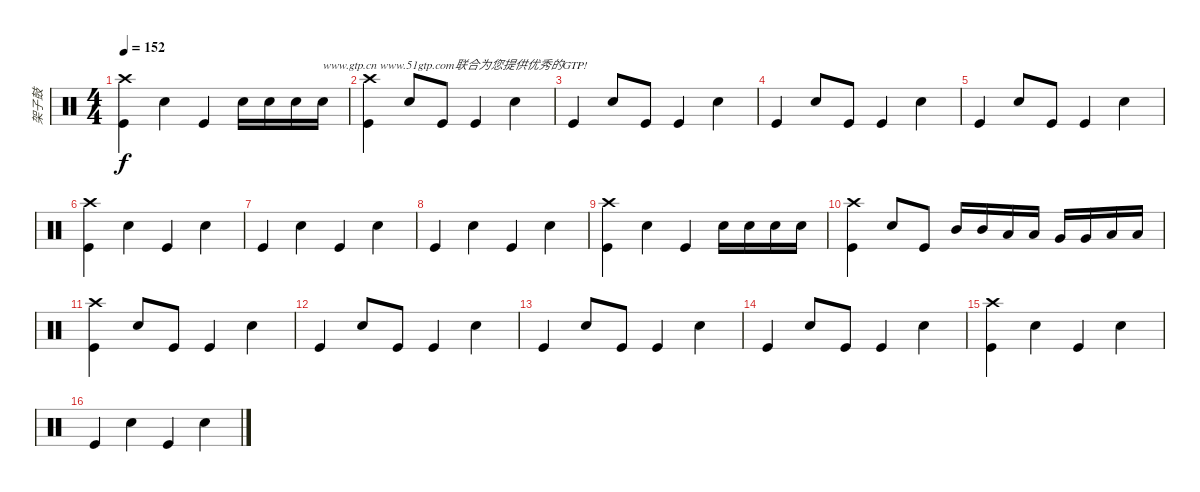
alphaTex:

\track ("架子鼓" "架子鼓") {instrument percussion}
\staff {score}
\articulation defaults
\ts (4 4)
\tempo 152
\clef neutral
\ks c
("Crash high (hit)" "Kick (hit)").4{dy f} "Electric Snare (hit)".4 "Kick (hit)".4 "Electric Snare (hit)".16 "Electric Snare (hit)".16 "Electric Snare (hit)".16 "Electric Snare (hit)".16{txt "www.gtp.cn www.51gtp.com联合为您提供优秀的GTP!"} |
("Crash high (hit)" "Kick (hit)").4 "Electric Snare (hit)".8 "Kick (hit)".8 "Kick (hit)".4 "Electric Snare (hit)".4 |
"Kick (hit)".4 "Electric Snare (hit)".8 "Kick (hit)".8 "Kick (hit)".4 "Electric Snare (hit)".4 |
"Kick (hit)".4 "Electric Snare (hit)".8 "Kick (hit)".8 "Kick (hit)".4 "Electric Snare (hit)".4 |
"Kick (hit)".4 "Electric Snare (hit)".8 "Kick (hit)".8 "Kick (hit)".4 "Electric Snare (hit)".4 |
("Crash high (hit)" "Kick (hit)").4 "Electric Snare (hit)".4 "Kick (hit)".4 "Electric Snare (hit)".4 |
"Kick (hit)".4 "Electric Snare (hit)".4 "Kick (hit)".4 "Electric Snare (hit)".4 |
"Kick (hit)".4 "Electric Snare (hit)".4 "Kick (hit)".4 "Electric Snare (hit)".4 |
("Crash high (hit)" "Kick (hit)").4 "Electric Snare (hit)".4 "Kick (hit)".4 "Electric Snare (hit)".16 "Electric Snare (hit)".16 "Electric Snare (hit)".16 "Electric Snare (hit)".16 |
("Crash high (hit)" "Kick (hit)").4 "Electric Snare (hit)".8 "Kick (hit)".8 "Mid Tom (hit)".16 "Mid Tom (hit)".16 "Low Tom (hit)".16 "Low Tom (hit)".16 "Very Low Tom (hit)".16 "Very Low Tom (hit)".16 "Low Floor Tom (hit)".16 "Low Floor Tom (hit)".16 |
("Crash high (hit)" "Kick (hit)").4 "Electric Snare (hit)".8 "Kick (hit)".8 "Kick (hit)".4 "Electric Snare (hit)".4 |
"Kick (hit)".4 "Electric Snare (hit)".8 "Kick (hit)".8 "Kick (hit)".4 "Electric Snare (hit)".4 |
"Kick (hit)".4 "Electric Snare (hit)".8 "Kick (hit)".8 "Kick (hit)".4 "Electric Snare (hit)".4 |
"Kick (hit)".4 "Electric Snare (hit)".8 "Kick (hit)".8 "Kick (hit)".4 "Electric Snare (hit)".4 |
("Crash high (hit)" "Kick (hit)").4 "Electric Snare (hit)".4 "Kick (hit)".4 "Electric Snare (hit)".4 |
"Kick (hit)".4 "Electric Snare (hit)".4 "Kick (hit)".4 "Electric Snare (hit)".4
